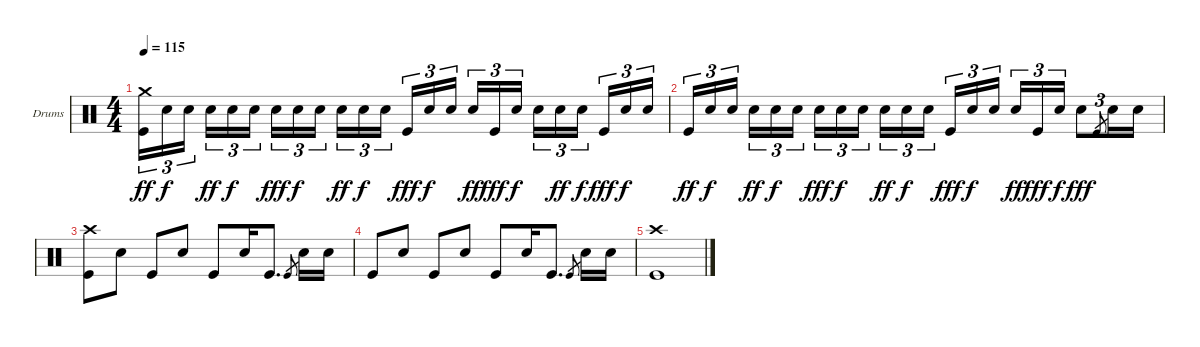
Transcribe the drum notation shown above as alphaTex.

\defaultSystemsLayout 4
\bracketExtendMode groupsimilarinstruments
\firstSystemTrackNameOrientation horizontal
\otherSystemsTrackNameOrientation horizontal
\track ("Drumkit" "Drums") {instrument percussion}
\staff {score}
\articulation defaults
\ts (4 4)
\tempo 115
\clef neutral
\ks c
("Kick (hit)" "Crash medium (hit)").16{tu (3 2) dy ff} "Snare (hit) 2".16{tu (3 2) dy f} "Snare (hit) 2".16{tu (3 2)} "Snare (hit) 2".16{tu (3 2) dy ff} "Snare (hit) 2".16{tu (3 2) dy f} "Snare (hit) 2".16{tu (3 2)} "Snare (hit) 2".16{tu (3 2) dy fff} "Snare (hit) 2".16{tu (3 2) dy f} "Snare (hit) 2".16{tu (3 2)} "Snare (hit) 2".16{tu (3 2) dy ff} "Snare (hit) 2".16{tu (3 2) dy f} "Snare (hit) 2".16{tu (3 2)} "Kick (hit)".16{tu (3 2) dy fff} "Snare (hit) 2".16{tu (3 2) dy f} "Snare (hit) 2".16{tu (3 2)} "Snare (hit) 2".16{tu (3 2) dy ff} "Kick (hit)".16{tu (3 2) dy fff} "Snare (hit) 2".16{tu (3 2) dy f} "Snare (hit) 2".16{tu (3 2)} "Snare (hit) 2".16{tu (3 2) dy ff} "Snare (hit) 2".16{tu (3 2) dy f} "Kick (hit)".16{tu (3 2) dy fff} "Snare (hit) 2".16{tu (3 2) dy f} "Snare (hit) 2".16{tu (3 2)} |
"Kick (hit)".16{tu (3 2) dy ff} "Snare (hit) 2".16{tu (3 2) dy f} "Snare (hit) 2".16{tu (3 2)} "Snare (hit) 2".16{tu (3 2) dy ff} "Snare (hit) 2".16{tu (3 2) dy f} "Snare (hit) 2".16{tu (3 2)} "Snare (hit) 2".16{tu (3 2) dy fff} "Snare (hit) 2".16{tu (3 2) dy f} "Snare (hit) 2".16{tu (3 2)} "Snare (hit) 2".16{tu (3 2) dy ff} "Snare (hit) 2".16{tu (3 2) dy f} "Snare (hit) 2".16{tu (3 2)} "Kick (hit)".16{tu (3 2) dy fff} "Snare (hit) 2".16{tu (3 2) dy f} "Snare (hit) 2".16{tu (3 2)} "Snare (hit) 2".16{tu (3 2) dy ff} "Kick (hit)".16{tu (3 2) dy fff} "Snare (hit) 2".16{tu (3 2) dy f} "Snare (hit) 2".8{dy fff} "Kick (hit)".8{tu (3 2) gr} "Snare (hit) 2".16 "Snare (hit) 2".16 |
("Kick (hit)" "Crash high (hit)").8 "Snare (hit) 2".8 "Kick (hit)".8 "Snare (hit) 2".8 "Kick (hit)".8 "Snare (hit) 2".16 "Kick (hit)".8{d} "Kick (hit)".8{gr} "Snare (hit) 2".16 "Snare (hit) 2".16 |
"Kick (hit)".8 "Snare (hit) 2".8 "Kick (hit)".8 "Snare (hit) 2".8 "Kick (hit)".8 "Snare (hit) 2".16 "Kick (hit)".8{d} "Kick (hit)".8{gr} "Snare (hit) 2".16 "Snare (hit) 2".16 |
("Kick (hit)" "Crash high (hit)").1
